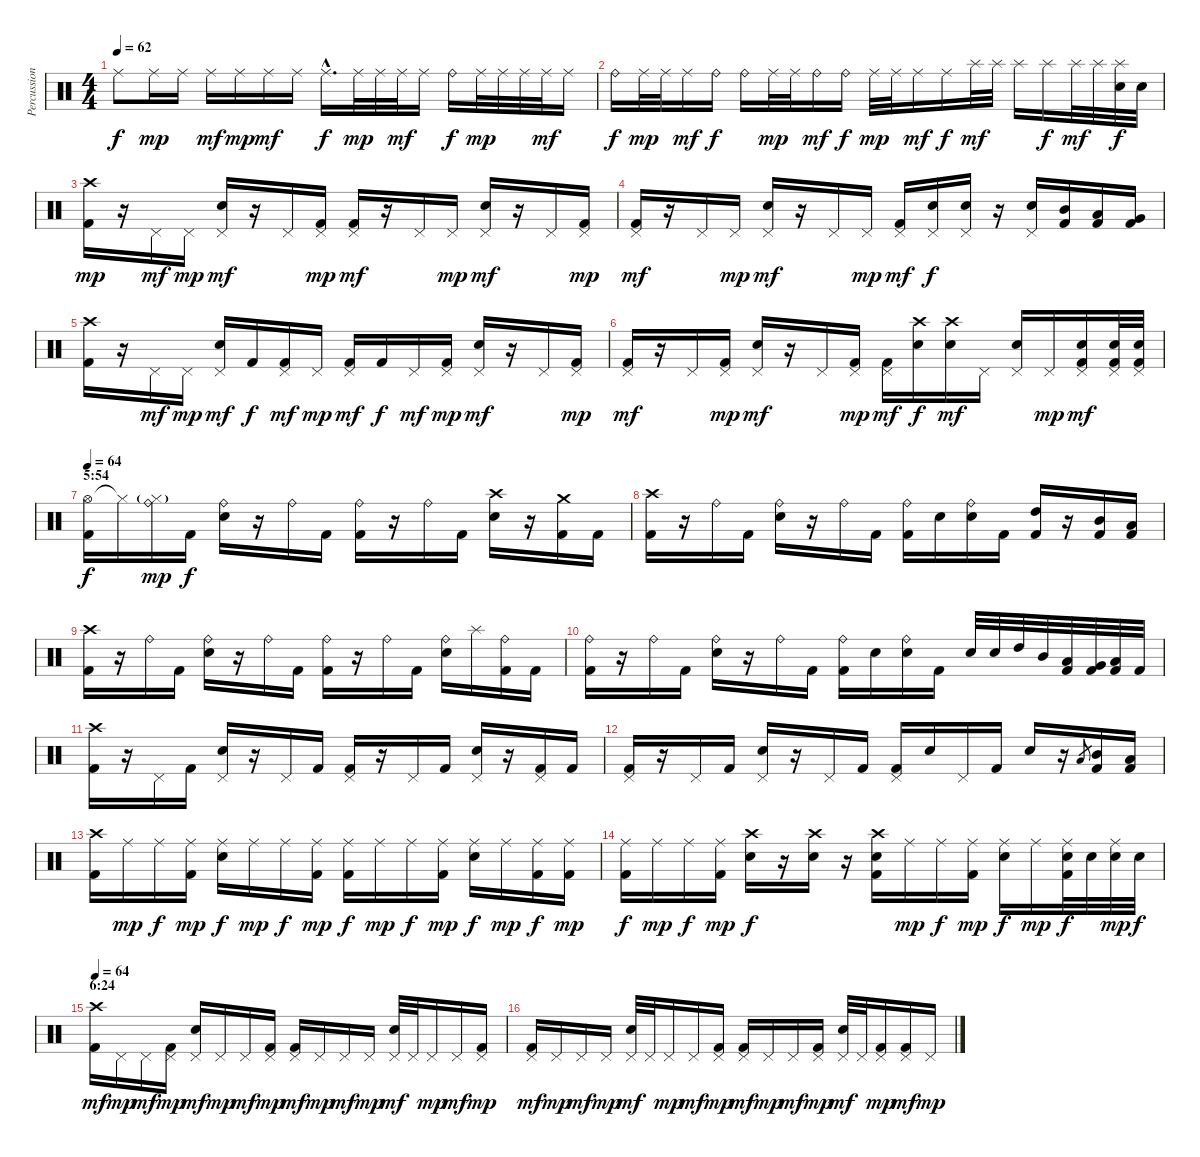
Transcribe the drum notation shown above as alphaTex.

\track ("Percussion" "Percussion") {instrument percussion}
\staff {score}
\articulation defaults
\ts (4 4)
\tempo 62
\clef neutral
\ks c "Ride (middle)".8{dy f} "Ride (middle)".16{dy mp} "Ride (middle)".16 "Ride (middle)".16{dy mf} "Ride (middle)".16{dy mp} "Ride (middle)".16{dy mf} "Ride (middle)".16 "Ride (middle)"{hac}.16{d dy f} "Ride (middle)".32{dy mp} "Ride (middle)".32 "Ride (middle)".32{dy mf} "Ride (middle)".16 "Ride (bell)".16{dy f} "Ride (middle)".32{dy mp} "Ride (middle)".32 "Ride (middle)".32 "Ride (middle)".32{dy mf} "Ride (middle)".16
|
"Ride (bell)".16{dy f} "Ride (middle)".32{dy mp} "Ride (middle)".32 "Ride (middle)".16{dy mf} "Ride (bell)".16{dy f} "Ride (bell)".16 "Ride (middle)".32{dy mp} "Ride (middle)".32 "Ride (bell)".16{dy mf} "Ride (bell)".16{dy f} "Ride (middle)".32{dy mp} "Ride (middle)".32 "Ride (middle)".16{dy mf} "Ride (middle)".16{dy f} "Splash (hit)".32{dy mf} "Splash (hit)".32 "Splash (hit)".16 "Splash (hit)".16{dy f} "Splash (hit)".32{dy mf} "Splash (hit)".32 ("Splash (hit)" "Snare (hit) 2").32{dy f} "Snare (hit) 2".32 |
("Crash high (hit)" "Kick (hit) 2").16{dy mp} r.16 "Pedal Hi-Hat (hit)".16{dy mf} "Pedal Hi-Hat (hit)".16{dy mp} ("Pedal Hi-Hat (hit)" "Snare (hit) 2").16{dy mf} r.16 "Pedal Hi-Hat (hit)".16 ("Pedal Hi-Hat (hit)" "Kick (hit) 2").16{dy mp} ("Pedal Hi-Hat (hit)" "Kick (hit) 2").16{dy mf} r.16 "Pedal Hi-Hat (hit)".16 "Pedal Hi-Hat (hit)".16{dy mp} ("Pedal Hi-Hat (hit)" "Snare (hit) 2").16{dy mf} r.16 "Pedal Hi-Hat (hit)".16 ("Pedal Hi-Hat (hit)" "Kick (hit) 2").16{dy mp} |
("Pedal Hi-Hat (hit)" "Kick (hit) 2").16{dy mf} r.16 "Pedal Hi-Hat (hit)".16 "Pedal Hi-Hat (hit)".16{dy mp} ("Pedal Hi-Hat (hit)" "Snare (hit) 2").16{dy mf} r.16 "Pedal Hi-Hat (hit)".16 "Pedal Hi-Hat (hit)".16{dy mp} ("Pedal Hi-Hat (hit)" "Kick (hit) 2").16{dy mf} ("Pedal Hi-Hat (hit)" "Snare (hit) 2").16{dy f} ("Pedal Hi-Hat (hit)" "Snare (hit) 2").16 r.16 ("Pedal Hi-Hat (hit)" "Snare (hit) 2").16 ("Mid Tom (hit)" "Kick (hit) 2").16 ("Low Tom (hit)" "Kick (hit) 2").16 ("Very Low Tom (hit)" "Kick (hit) 2").16 |
("Crash high (hit)" "Kick (hit) 2").16 r.16 "Pedal Hi-Hat (hit)".16{dy mf} "Pedal Hi-Hat (hit)".16{dy mp} ("Pedal Hi-Hat (hit)" "Snare (hit) 2").16{dy mf} "Kick (hit) 2".16{dy f} ("Pedal Hi-Hat (hit)" "Kick (hit) 2").16{dy mf} "Pedal Hi-Hat (hit)".16{dy mp} ("Pedal Hi-Hat (hit)" "Kick (hit) 2").16{dy mf} "Kick (hit) 2".16{dy f} "Pedal Hi-Hat (hit)".16{dy mf} ("Pedal Hi-Hat (hit)" "Kick (hit) 2").16{dy mp} ("Pedal Hi-Hat (hit)" "Snare (hit) 2").16{dy mf} r.16 "Pedal Hi-Hat (hit)".16 ("Pedal Hi-Hat (hit)" "Kick (hit) 2").16{dy mp} |
("Pedal Hi-Hat (hit)" "Kick (hit) 2").16{dy mf} r.16 "Pedal Hi-Hat (hit)".16 ("Pedal Hi-Hat (hit)" "Kick (hit) 2").16{dy mp} ("Pedal Hi-Hat (hit)" "Snare (hit) 2").16{dy mf} r.16 "Pedal Hi-Hat (hit)".16 ("Pedal Hi-Hat (hit)" "Kick (hit) 2").16{dy mp} ("Pedal Hi-Hat (hit)" "Kick (hit) 2").16{dy mf} ("Crash high (hit)" "Snare (hit) 2").16{dy f} ("Crash high (hit)" "Snare (hit) 2").16{dy mf} "Pedal Hi-Hat (hit)".16 ("Pedal Hi-Hat (hit)" "Snare (hit) 2").16 "Pedal Hi-Hat (hit)".16{dy mp} ("Pedal Hi-Hat (hit)" "Snare (hit) 2" "Kick (hit) 2").16{dy mf} ("Pedal Hi-Hat (hit)" "Snare (hit) 2" "Kick (hit) 2").32 ("Pedal Hi-Hat (hit)" "Snare (hit) 2" "Kick (hit) 2").32 |
\section ("" "5:54")
\tempo 64
("Hi-Hat (open)" "Kick (hit) 2").16{dy f} "Hi-Hat (closed)"{t}.16 ("Hi-Hat (closed)"{g} "Ride (bell)").16{dy mp} "Kick (hit) 2".16{dy f} ("Ride (bell)" "Snare (hit) 2").16 r.16 "Ride (bell)".16 "Kick (hit) 2".16 ("Ride (bell)" "Kick (hit) 2").16 r.16 "Ride (bell)".16 "Kick (hit) 2".16 ("Crash high (hit)" "Snare (hit) 2").16 r.16 ("Crash medium (hit)" "Kick (hit) 2").16 "Kick (hit) 2".16 |
("Crash high (hit)" "Kick (hit) 2").16 r.16 "Ride (bell)".16 "Kick (hit) 2".16 ("Ride (bell)" "Snare (hit) 2").16 r.16 "Ride (bell)".16 "Kick (hit) 2".16 ("Ride (bell)" "Kick (hit) 2").16 "Snare (hit) 2".16 ("Ride (bell)" "Snare (hit) 2").16 "Kick (hit) 2".16 ("High Tom (hit)" "Kick (hit) 2").16 r.16 ("Mid Tom (hit)" "Kick (hit) 2").16 ("Low Tom (hit)" "Kick (hit) 2").16 |
("Crash high (hit)" "Kick (hit) 2").16 r.16 "Ride (bell)".16 "Kick (hit) 2".16 ("Ride (bell)" "Snare (hit) 2").16 r.16 "Ride (bell)".16 "Kick (hit) 2".16 ("Ride (bell)" "Kick (hit) 2").16 r.16 "Ride (bell)".16 "Kick (hit) 2".16 ("Ride (bell)" "Snare (hit) 2").16 "Splash (hit)".16 ("Ride (bell)" "Kick (hit) 2").16 "Kick (hit) 2".16 |
("Ride (bell)" "Kick (hit) 2").16 r.16 "Ride (bell)".16 "Kick (hit) 2".16 ("Ride (bell)" "Snare (hit) 2").16 r.16 "Ride (bell)".16 "Kick (hit) 2".16 ("Ride (bell)" "Kick (hit) 2").16 "Snare (hit) 2".16 ("Ride (bell)" "Snare (hit) 2").16 "Kick (hit) 2".16 "Snare (hit) 2".32 "Snare (hit) 2".32 "High Tom (hit)".32 "Mid Tom (hit)".32 ("Low Tom (hit)" "Kick (hit) 2").32 ("Very Low Tom (hit)" "Kick (hit) 2").32 ("Low Floor Tom (hit)" "Kick (hit) 2").32 "Kick (hit) 2".32 |
("Crash high (hit)" "Kick (hit) 2").16 r.16 "Pedal Hi-Hat (hit)".16 "Kick (hit) 2".16 ("Pedal Hi-Hat (hit)" "Snare (hit) 2").16 r.16 "Pedal Hi-Hat (hit)".16 "Kick (hit) 2".16 ("Pedal Hi-Hat (hit)" "Kick (hit) 2").16 r.16 "Pedal Hi-Hat (hit)".16 "Kick (hit) 2".16 ("Pedal Hi-Hat (hit)" "Snare (hit) 2").16 r.16 ("Pedal Hi-Hat (hit)" "Kick (hit) 2").16 "Kick (hit) 2".16 |
("Pedal Hi-Hat (hit)" "Kick (hit) 2").16 r.16 "Pedal Hi-Hat (hit)".16 "Kick (hit) 2".16 ("Pedal Hi-Hat (hit)" "Snare (hit) 2").16 r.16 "Pedal Hi-Hat (hit)".16 "Kick (hit) 2".16 ("Pedal Hi-Hat (hit)" "Kick (hit) 2").16 "Snare (hit) 2".16 "Pedal Hi-Hat (hit)".16 "Kick (hit) 2".16 "Snare (hit) 2".16 r.16 "Low Tom (hit)".8{gr} ("Mid Tom (hit)" "Kick (hit) 2").16 ("Low Tom (hit)" "Kick (hit) 2").16 |
("Crash high (hit)" "Kick (hit) 2").16 "Ride (middle)".16{dy mp} "Ride (middle)".16{dy f} ("Ride (middle)" "Kick (hit) 2").16{dy mp} ("Ride (middle)" "Snare (hit) 2").16{dy f} "Ride (middle)".16{dy mp} "Ride (middle)".16{dy f} ("Ride (middle)" "Kick (hit) 2").16{dy mp} ("Ride (middle)" "Kick (hit) 2").16{dy f} "Ride (middle)".16{dy mp} "Ride (middle)".16{dy f} ("Ride (middle)" "Kick (hit) 2").16{dy mp} ("Ride (middle)" "Snare (hit) 2").16{dy f} "Ride (middle)".16{dy mp} ("Ride (middle)" "Kick (hit) 2").16{dy f} ("Ride (middle)" "Kick (hit) 2").16{dy mp} |
("Ride (middle)" "Kick (hit) 2").16{dy f} "Ride (middle)".16{dy mp} "Ride (middle)".16{dy f} ("Ride (middle)" "Kick (hit) 2").16{dy mp} ("Crash high (hit)" "Snare (hit) 2").16{dy f} r.16 ("Crash high (hit)" "Snare (hit) 2").16 r.16 ("Crash high (hit)" "Snare (hit) 2" "Kick (hit) 2").16 "Ride (middle)".16{dy mp} "Ride (middle)".16{dy f} ("Ride (middle)" "Kick (hit) 2").16{dy mp} ("Ride (middle)" "Snare (hit) 2").16{dy f} "Ride (middle)".16{dy mp} ("Ride (middle)" "Snare (hit) 2" "Kick (hit) 2").32{dy f} "Snare (hit) 2".32 ("Ride (middle)" "Snare (hit) 2").32{dy mp} "Snare (hit) 2".32{dy f} |
\section ("" "6:24")
\tempo 64
("Crash high (hit)" "Kick (hit) 2").16{dy mf} "Pedal Hi-Hat (hit)".16{dy mp} "Pedal Hi-Hat (hit)".16{dy mf} ("Pedal Hi-Hat (hit)" "Kick (hit) 2").16{dy mp} ("Pedal Hi-Hat (hit)" "Snare (hit) 2").16{dy mf} "Pedal Hi-Hat (hit)".16{dy mp} "Pedal Hi-Hat (hit)".16{dy mf} ("Pedal Hi-Hat (hit)" "Kick (hit) 2").16{dy mp} ("Pedal Hi-Hat (hit)" "Kick (hit) 2").16{dy mf} "Pedal Hi-Hat (hit)".16{dy mp} "Pedal Hi-Hat (hit)".16{dy mf} "Pedal Hi-Hat (hit)".16{dy mp} ("Pedal Hi-Hat (hit)" "Snare (hit) 2").32{dy mf} "Pedal Hi-Hat (hit)".32 "Pedal Hi-Hat (hit)".16{dy mp} "Pedal Hi-Hat (hit)".16{dy mf} ("Pedal Hi-Hat (hit)" "Kick (hit) 2").16{dy mp} |
("Pedal Hi-Hat (hit)" "Kick (hit) 2").16{dy mf} "Pedal Hi-Hat (hit)".16{dy mp} "Pedal Hi-Hat (hit)".16{dy mf} "Pedal Hi-Hat (hit)".16{dy mp} ("Pedal Hi-Hat (hit)" "Snare (hit) 2").32{dy mf} "Pedal Hi-Hat (hit)".32 "Pedal Hi-Hat (hit)".16{dy mp} "Pedal Hi-Hat (hit)".16{dy mf} ("Pedal Hi-Hat (hit)" "Kick (hit) 2").16{dy mp} ("Pedal Hi-Hat (hit)" "Kick (hit) 2").16{dy mf} "Pedal Hi-Hat (hit)".16{dy mp} "Pedal Hi-Hat (hit)".16{dy mf} ("Pedal Hi-Hat (hit)" "Kick (hit) 2").16{dy mp} ("Pedal Hi-Hat (hit)" "Snare (hit) 2").32{dy mf} "Pedal Hi-Hat (hit)".32 ("Pedal Hi-Hat (hit)" "Kick (hit) 2").16{dy mp} ("Pedal Hi-Hat (hit)" "Kick (hit) 2").16{dy mf} "Pedal Hi-Hat (hit)".16{dy mp}
